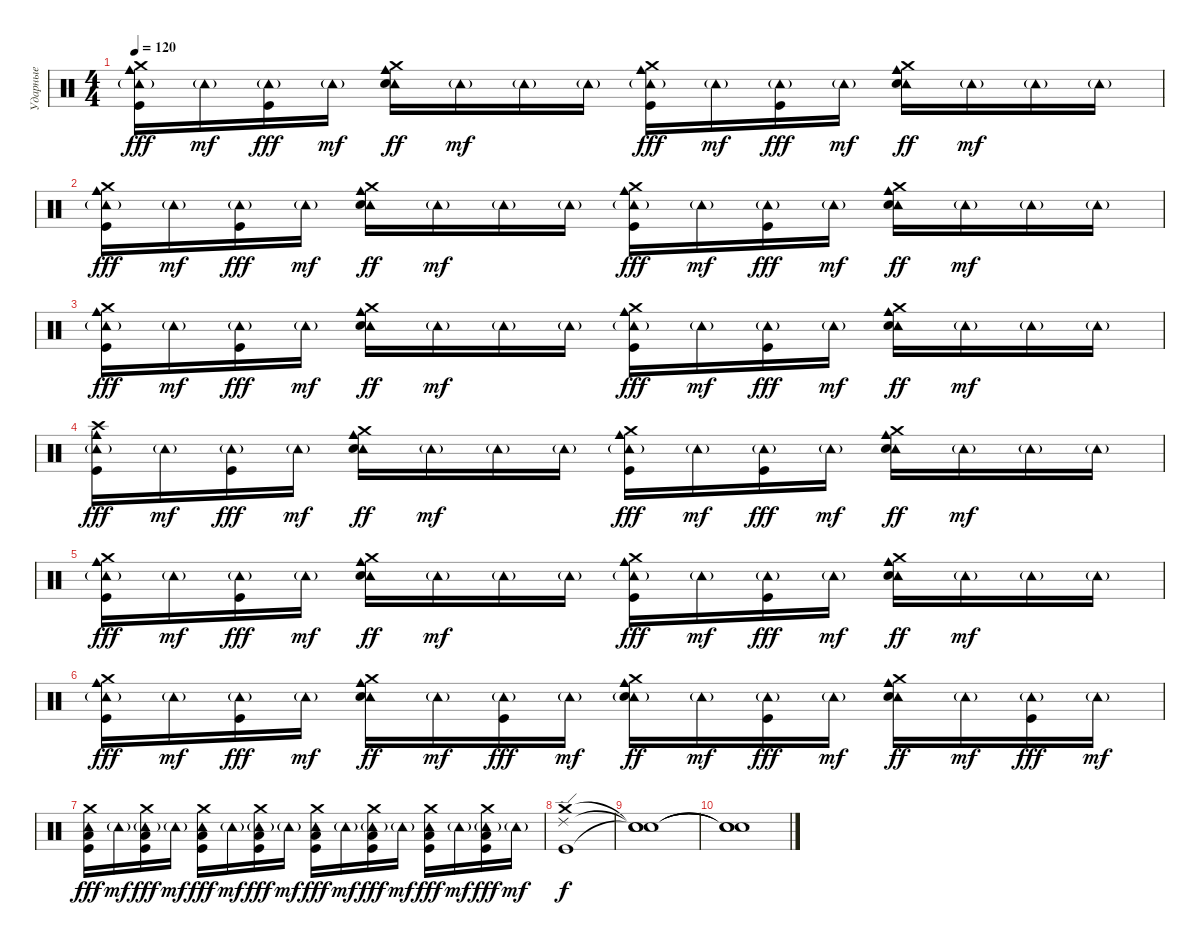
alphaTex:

\track ("Ударные" "Ударные") {instrument percussion}
\staff {score}
\articulation defaults
\ts (4 4)
\tempo 120
\clef neutral
\ks c
("Cowbell medium (hit)" "Tambourine (hit)"{g} "Crash medium (hit)" "Kick (hit)").16{dy fff} "Tambourine (hit)"{g}.16{dy mf} ("Tambourine (hit)"{g} "Kick (hit)").16{dy fff} "Tambourine (hit)"{g}.16{dy mf} ("Cowbell medium (hit)" "Tambourine (hit)" "Crash medium (hit)" "Snare (hit) 2").16{dy ff} "Tambourine (hit)"{g}.16{dy mf} "Tambourine (hit)"{g}.16 "Tambourine (hit)"{g}.16 ("Cowbell medium (hit)" "Tambourine (hit)"{g} "Crash medium (hit)" "Kick (hit)").16{dy fff} "Tambourine (hit)"{g}.16{dy mf} ("Tambourine (hit)"{g} "Kick (hit)").16{dy fff} "Tambourine (hit)"{g}.16{dy mf} ("Cowbell medium (hit)" "Tambourine (hit)" "Crash medium (hit)" "Snare (hit) 2").16{dy ff} "Tambourine (hit)"{g}.16{dy mf} "Tambourine (hit)"{g}.16 "Tambourine (hit)"{g}.16 |
("Cowbell medium (hit)" "Tambourine (hit)"{g} "Crash medium (hit)" "Kick (hit)").16{dy fff} "Tambourine (hit)"{g}.16{dy mf} ("Tambourine (hit)"{g} "Kick (hit)").16{dy fff} "Tambourine (hit)"{g}.16{dy mf} ("Cowbell medium (hit)" "Tambourine (hit)" "Crash medium (hit)" "Snare (hit) 2").16{dy ff} "Tambourine (hit)"{g}.16{dy mf} "Tambourine (hit)"{g}.16 "Tambourine (hit)"{g}.16 ("Cowbell medium (hit)" "Tambourine (hit)"{g} "Crash medium (hit)" "Kick (hit)").16{dy fff} "Tambourine (hit)"{g}.16{dy mf} ("Tambourine (hit)"{g} "Kick (hit)").16{dy fff} "Tambourine (hit)"{g}.16{dy mf} ("Cowbell medium (hit)" "Tambourine (hit)" "Crash medium (hit)" "Snare (hit) 2").16{dy ff} "Tambourine (hit)"{g}.16{dy mf} "Tambourine (hit)"{g}.16 "Tambourine (hit)"{g}.16 |
("Cowbell medium (hit)" "Tambourine (hit)"{g} "Crash medium (hit)" "Kick (hit)").16{dy fff} "Tambourine (hit)"{g}.16{dy mf} ("Tambourine (hit)"{g} "Kick (hit)").16{dy fff} "Tambourine (hit)"{g}.16{dy mf} ("Cowbell medium (hit)" "Tambourine (hit)" "Crash medium (hit)" "Snare (hit) 2").16{dy ff} "Tambourine (hit)"{g}.16{dy mf} "Tambourine (hit)"{g}.16 "Tambourine (hit)"{g}.16 ("Cowbell medium (hit)" "Tambourine (hit)"{g} "Crash medium (hit)" "Kick (hit)").16{dy fff} "Tambourine (hit)"{g}.16{dy mf} ("Tambourine (hit)"{g} "Kick (hit)").16{dy fff} "Tambourine (hit)"{g}.16{dy mf} ("Cowbell medium (hit)" "Tambourine (hit)" "Crash medium (hit)" "Snare (hit) 2").16{dy ff} "Tambourine (hit)"{g}.16{dy mf} "Tambourine (hit)"{g}.16 "Tambourine (hit)"{g}.16 |
("Cowbell medium (hit)" "Tambourine (hit)"{g} "Crash high (hit)" "Kick (hit)").16{dy fff} "Tambourine (hit)"{g}.16{dy mf} ("Tambourine (hit)"{g} "Kick (hit)").16{dy fff} "Tambourine (hit)"{g}.16{dy mf} ("Cowbell medium (hit)" "Tambourine (hit)" "Crash medium (hit)" "Snare (hit) 2").16{dy ff} "Tambourine (hit)"{g}.16{dy mf} "Tambourine (hit)"{g}.16 "Tambourine (hit)"{g}.16 ("Cowbell medium (hit)" "Tambourine (hit)"{g} "Crash medium (hit)" "Kick (hit)").16{dy fff} "Tambourine (hit)"{g}.16{dy mf} ("Tambourine (hit)"{g} "Kick (hit)").16{dy fff} "Tambourine (hit)"{g}.16{dy mf} ("Cowbell medium (hit)" "Tambourine (hit)" "Crash medium (hit)" "Snare (hit) 2").16{dy ff} "Tambourine (hit)"{g}.16{dy mf} "Tambourine (hit)"{g}.16 "Tambourine (hit)"{g}.16 |
("Cowbell medium (hit)" "Tambourine (hit)"{g} "Crash medium (hit)" "Kick (hit)").16{dy fff} "Tambourine (hit)"{g}.16{dy mf} ("Tambourine (hit)"{g} "Kick (hit)").16{dy fff} "Tambourine (hit)"{g}.16{dy mf} ("Cowbell medium (hit)" "Tambourine (hit)" "Crash medium (hit)" "Snare (hit) 2").16{dy ff} "Tambourine (hit)"{g}.16{dy mf} "Tambourine (hit)"{g}.16 "Tambourine (hit)"{g}.16 ("Cowbell medium (hit)" "Tambourine (hit)"{g} "Crash medium (hit)" "Kick (hit)").16{dy fff} "Tambourine (hit)"{g}.16{dy mf} ("Tambourine (hit)"{g} "Kick (hit)").16{dy fff} "Tambourine (hit)"{g}.16{dy mf} ("Cowbell medium (hit)" "Tambourine (hit)" "Crash medium (hit)" "Snare (hit) 2").16{dy ff} "Tambourine (hit)"{g}.16{dy mf} "Tambourine (hit)"{g}.16 "Tambourine (hit)"{g}.16 |
("Cowbell medium (hit)" "Tambourine (hit)"{g} "Crash medium (hit)" "Kick (hit)").16{dy fff} "Tambourine (hit)"{g}.16{dy mf} ("Tambourine (hit)"{g} "Kick (hit)").16{dy fff} "Tambourine (hit)"{g}.16{dy mf} ("Cowbell medium (hit)" "Tambourine (hit)" "Crash medium (hit)" "Snare (hit) 2").16{dy ff} "Tambourine (hit)"{g}.16{dy mf} ("Tambourine (hit)"{g} "Kick (hit)").16{dy fff} "Tambourine (hit)"{g}.16{dy mf} ("Cowbell medium (hit)" "Tambourine (hit)"{g} "Crash medium (hit)" "Snare (hit) 2").16{dy ff} "Tambourine (hit)"{g}.16{dy mf} ("Tambourine (hit)"{g} "Kick (hit)").16{dy fff} "Tambourine (hit)"{g}.16{dy mf} ("Cowbell medium (hit)" "Tambourine (hit)" "Crash medium (hit)" "Snare (hit) 2").16{dy ff} "Tambourine (hit)"{g}.16{dy mf} ("Tambourine (hit)"{g} "Kick (hit)").16{dy fff} "Tambourine (hit)"{g}.16{dy mf} |
("Tambourine (hit)" "Crash medium (hit)" "Low Tom (hit)" "Kick (hit)").16{dy fff} "Tambourine (hit)"{g}.16{dy mf} ("Tambourine (hit)"{g} "Crash medium (hit)" "Low Tom (hit)" "Kick (hit)").16{dy fff} "Tambourine (hit)"{g}.16{dy mf} ("Tambourine (hit)" "Crash medium (hit)" "Low Tom (hit)" "Kick (hit)").16{dy fff} "Tambourine (hit)"{g}.16{dy mf} ("Tambourine (hit)"{g} "Crash medium (hit)" "Low Tom (hit)" "Kick (hit)").16{dy fff} "Tambourine (hit)"{g}.16{dy mf} ("Tambourine (hit)" "Crash medium (hit)" "Low Tom (hit)" "Kick (hit)").16{dy fff} "Tambourine (hit)"{g}.16{dy mf} ("Tambourine (hit)"{g} "Crash medium (hit)" "Low Tom (hit)" "Kick (hit)").16{dy fff} "Tambourine (hit)"{g}.16{dy mf} ("Tambourine (hit)" "Crash medium (hit)" "Low Tom (hit)" "Kick (hit)").16{dy fff} "Tambourine (hit)"{g}.16{dy mf} ("Tambourine (hit)"{g} "Crash medium (hit)" "Low Tom (hit)" "Kick (hit)").16{dy fff} "Tambourine (hit)"{g}.16{dy mf} |
("Crash medium (hit)" "Ride (edge) 2" "Kick (hit)").1{dy f} |
("Snare (hit)"{t} "Snare (hit)"{t} "Snare (hit)"{t}).1 |
("Snare (hit)"{t} "Snare (hit)"{t} "Snare (hit)"{t}).1
